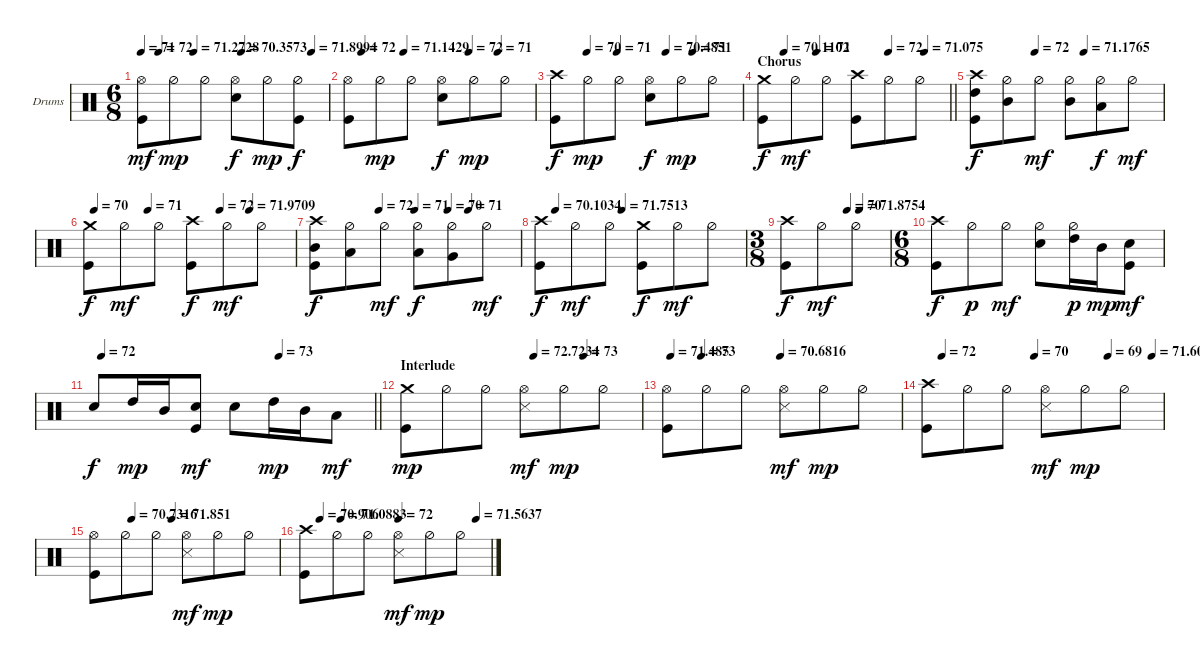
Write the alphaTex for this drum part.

\bracketExtendMode groupsimilarinstruments
\firstSystemTrackNameOrientation horizontal
\otherSystemsTrackNameOrientation horizontal
\track ("Drums" "Drums") {instrument percussion}
\staff {score}
\articulation defaults
\ts (6 8)
\tempo 71
\tempo (72 0.09375)
\tempo (71.2728 0.28125)
\tempo (70.3573 0.5375)
\tempo (71.8994 0.9125)
\clef neutral
\ks c
("Hi-Hat (open)" "Kick (hit)").8{dy mf} "Hi-Hat (half)".8{dy mp} "Hi-Hat (half)".8 ("Hi-Hat (open)" "Snare (hit) 2").8{dy f} "Hi-Hat (half)".8{dy mp} ("Hi-Hat (half)" "Kick (hit)").8{dy f} |
\tempo (72 0.075)
\tempo (71.1429 0.3)
\tempo (72 0.65)
\tempo (71 0.80625)
("Hi-Hat (open)" "Kick (hit)").8 "Hi-Hat (half)".8{dy mp} "Hi-Hat (half)".8 ("Hi-Hat (open)" "Snare (hit) 2").8{dy f} "Hi-Hat (half)".8{dy mp} "Hi-Hat (half)".8 |
\tempo (70 0.16875)
\tempo (71 0.33125)
\tempo (70.4851 0.59375)
\tempo (71 0.7375)
("Crash high (hit)" "Kick (hit)").8{dy f} "Hi-Hat (half)".8{dy mp} "Hi-Hat (half)".8 ("Hi-Hat (open)" "Snare (hit) 2").8{dy f} "Hi-Hat (half)".8{dy mp} "Hi-Hat (half)".8 |
\section ("" "Chorus")
\tempo (70.1102 0.1125)
\tempo (71 0.2875)
\tempo (72 0.675)
\tempo (71.075 0.86875)
\barLineRight lightlight
("Crash medium (hit)" "Kick (hit)").8{dy f} "Hi-Hat (half)".8{dy mf} "Hi-Hat (half)".8 ("Crash high (hit)" "Kick (hit)").8 "Hi-Hat (half)".8 "Hi-Hat (half)".8 |
\tempo (72 0.31875)
\tempo (71.1765 0.58125)
("Crash high (hit)" "Kick (hit)" "High Tom (hit)").8{dy f} ("Hi-Hat (half)" "Mid Tom (hit)").8 "Hi-Hat (half)".8{dy mf} ("Hi-Hat (half)" "Mid Tom (hit)").8 ("Hi-Hat (half)" "Low Tom (hit)").8{dy f} "Hi-Hat (half)".8{dy mf} |
\tempo (70 0.025)
\tempo (71 0.2875)
\tempo (72 0.6375)
\tempo (71.9709 0.78125)
("Crash medium (hit)" "Kick (hit)").8{dy f} "Hi-Hat (half)".8{dy mf} "Hi-Hat (half)".8 ("Crash high (hit)" "Kick (hit)").8{dy f} "Hi-Hat (half)".8{dy mf} "Hi-Hat (half)".8 |
\tempo (72 0.3125)
\tempo (71 0.4875)
\tempo (70 0.65)
\tempo (71 0.75)
("Crash high (hit)" "Kick (hit)" "Mid Tom (hit)").8{dy f} ("Hi-Hat (half)" "Low Tom (hit)").8 "Hi-Hat (half)".8{dy mf} ("Hi-Hat (half)" "Low Tom (hit)").8{dy f} ("Hi-Hat (half)" "Very Low Tom (hit)").8 "Hi-Hat (half)".8{dy mf} |
\tempo (70.1034 0.075)
\tempo (71.7513 0.4)
("Crash high (hit)" "Kick (hit)").8{dy f} "Hi-Hat (half)".8{dy mf} "Hi-Hat (half)".8 ("Crash medium (hit)" "Kick (hit)").8{dy f} "Hi-Hat (half)".8{dy mf} "Hi-Hat (half)".8 |
\ts (3 8)
\beaming (8 3)
\tempo (70 0.59375)
\tempo (71.8754 0.7125)
("Crash high (hit)" "Kick (hit)").8{dy f} "Hi-Hat (half)".8{dy mf} "Hi-Hat (half)".8 |
\ts (6 8)
\beaming (8 3 3)
("Crash high (hit)" "Kick (hit)").8{dy f} "Hi-Hat (half)".8{dy p} "Hi-Hat (half)".8{dy mf} ("Hi-Hat (half)" "Snare (hit) 2").8 ("High Tom (hit)" "Hi-Hat (half)").16{dy p} "Mid Tom (hit)".16{dy mp} ("Snare (hit) 2" "Kick (hit)").8{dy mf} |
\tempo (72 0.03125)
\tempo (73 0.6625)
\barLineRight lightlight "Snare (hit) 2".8{dy f} "High Tom (hit)".16{dy mp} "Mid Tom (hit)".16
("Snare (hit) 2" "Kick (hit)").8{dy mf} "Snare (hit) 2".8 "High Tom (hit)".16{dy mp} "Mid Tom (hit)".16 "Low Tom (hit)".8{dy mf} |
\section ("" "Interlude")
\tempo (72.7234 0.54375)
\tempo (73 0.75625)
("Crash medium (hit)" "Kick (hit)").8{dy mp} "Hi-Hat (half)".8 "Hi-Hat (half)".8 ("Hi-Hat (open)" "Snare (side stick) 3").8{dy mf} "Hi-Hat (half)".8{dy mp} "Hi-Hat (half)".8 |
\tempo (71.485 0.01875)
\tempo (73 0.15)
\tempo (70.6816 0.4875)
("Hi-Hat (open)" "Kick (hit)").8 "Hi-Hat (half)".8 "Hi-Hat (half)".8 ("Hi-Hat (open)" "Snare (side stick) 3").8{dy mf} "Hi-Hat (half)".8{dy mp} "Hi-Hat (half)".8 |
\tempo (72 0.0625)
\tempo (70 0.45625)
\tempo (69 0.76875)
\tempo (71.6037 0.95625)
("Crash high (hit)" "Kick (hit)").8 "Hi-Hat (half)".8 "Hi-Hat (half)".8 ("Hi-Hat (open)" "Snare (side stick) 3").8{dy mf} "Hi-Hat (half)".8{dy mp} "Hi-Hat (half)".8 |
\tempo (70.7316 0.20625)
\tempo (71.851 0.425)
("Hi-Hat (open)" "Kick (hit)").8 "Hi-Hat (half)".8 "Hi-Hat (half)".8 ("Hi-Hat (open)" "Snare (side stick) 3").8{dy mf} "Hi-Hat (half)".8{dy mp} "Hi-Hat (half)".8 |
\tempo (70.906 0.08125)
\tempo (71.0883 0.19375)
\tempo (72 0.50625)
\tempo (71.5637 0.925)
("Crash high (hit)" "Kick (hit)").8 "Hi-Hat (half)".8 "Hi-Hat (half)".8 ("Hi-Hat (open)" "Snare (side stick) 3").8{dy mf} "Hi-Hat (half)".8{dy mp} "Hi-Hat (half)".8
